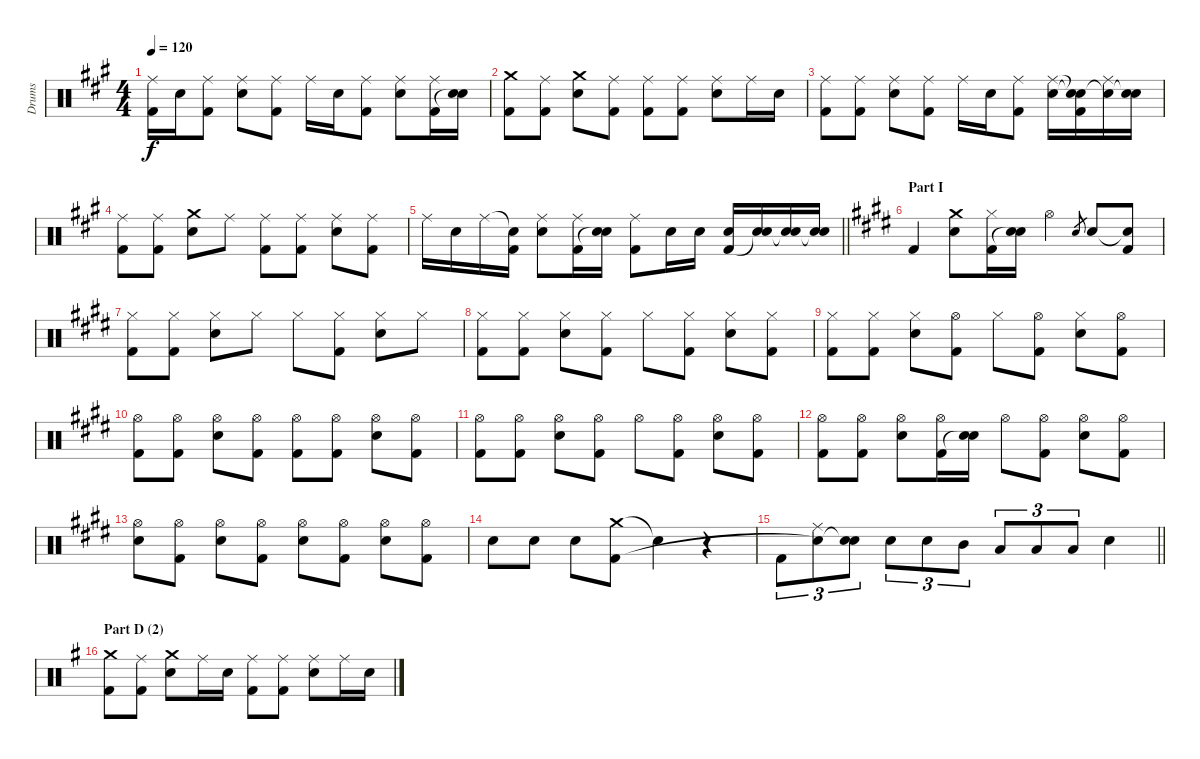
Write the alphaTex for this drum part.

\track ("Drums" "Drums") {instrument percussion}
\staff {score}
\articulation defaults
\ts (4 4)
\tempo 120
\clef neutral
\ks a
("Ride (middle)" "Kick (hit) 2").16{dy f} "Snare (hit) 2".16 ("Ride (middle)" "Kick (hit) 2").8 ("Ride (middle)" "Electric Snare (hit)").8 ("Ride (middle)" "Kick (hit) 2").8 "Ride (middle)".16 "Snare (hit) 2".16 ("Ride (middle)" "Kick (hit) 2").8 ("Ride (middle)" "Electric Snare (hit)").8 ("Ride (middle)" "Kick (hit) 2").16 ("Snare (hit) 2" "Snare (hit)"{t}).16 |
("Crash medium (hit)" "Kick (hit) 2").8 ("Ride (middle)" "Kick (hit) 2").8 ("Crash medium (hit)" "Electric Snare (hit)").8 ("Ride (middle)" "Kick (hit) 2").8 ("Ride (middle)" "Kick (hit) 2").8 ("Ride (middle)" "Kick (hit) 2").8 ("Ride (middle)" "Electric Snare (hit)").8 "Ride (middle)".16 "Snare (hit) 2".16 |
("Ride (middle)" "Kick (hit) 2").8 ("Ride (middle)" "Kick (hit) 2").8 ("Ride (middle)" "Electric Snare (hit)").8 ("Ride (middle)" "Kick (hit) 2").8 "Ride (middle)".16 "Electric Snare (hit)".16 ("Ride (middle)" "Kick (hit) 2").8 ("Ride (middle)" "Electric Snare (hit)").16 ("Snare (hit)"{t} "Snare (hit)"{t} "Kick (hit) 2").16 ("Ride (middle)" "Snare (hit)"{t}).16 ("Electric Snare (hit)" "Snare (hit)"{t}).16 |
("Ride (middle)" "Kick (hit) 2").8 ("Ride (middle)" "Kick (hit) 2").8 ("Crash medium (hit)" "Electric Snare (hit)").8 "Ride (middle)".8 ("Ride (middle)" "Kick (hit) 2").8 ("Ride (middle)" "Kick (hit) 2").8 ("Ride (middle)" "Electric Snare (hit)").8 ("Ride (middle)" "Kick (hit) 2").8 |
\barLineRight lightlight "Ride (middle)".16 "Electric Snare (hit)".16 "Ride (middle)".16
("Snare (hit)"{t} "Kick (hit) 2").16 ("Ride (middle)" "Electric Snare (hit)").8 ("Ride (middle)" "Kick (hit) 2").16 ("Electric Snare (hit)" "Snare (hit)"{t}).16 ("Ride (middle)" "Kick (hit) 2").8 "Electric Snare (hit)".16 "Electric Snare (hit)".16 ("Electric Snare (hit)" "Kick (hit) 2").16 ("Electric Snare (hit)" "Snare (hit)"{t}).16 ("Electric Snare (hit)" "Snare (hit)"{t}).16 ("Electric Snare (hit)" "Snare (hit)"{t}).16 |
\section ("" "Part I")
\ks e "Kick (hit) 2".4
("Crash medium (hit)" "Electric Snare (hit)").8 ("Hi-Hat (closed)" "Kick (hit) 2").16 ("Electric Snare (hit)" "Snare (hit)"{t}).16 "Hi-Hat (open)".4 "Electric Snare (hit)".8{gr} "Electric Snare (hit)".8 ("Snare (hit)"{t} "Kick (hit) 2").8 |
("Hi-Hat (closed)" "Kick (hit) 2").8 ("Hi-Hat (closed)" "Kick (hit) 2").8 ("Hi-Hat (closed)" "Electric Snare (hit)").8 "Hi-Hat (closed)".8 "Hi-Hat (closed)".8 ("Hi-Hat (closed)" "Kick (hit) 2").8 ("Hi-Hat (closed)" "Electric Snare (hit)").8 "Hi-Hat (closed)".8 |
("Hi-Hat (closed)" "Kick (hit) 2").8 ("Hi-Hat (closed)" "Kick (hit) 2").8 ("Hi-Hat (closed)" "Electric Snare (hit)").8 ("Hi-Hat (closed)" "Kick (hit) 2").8 "Hi-Hat (closed)".8 ("Hi-Hat (closed)" "Kick (hit) 2").8 ("Hi-Hat (closed)" "Electric Snare (hit)").8 ("Hi-Hat (closed)" "Kick (hit) 2").8 |
("Hi-Hat (closed)" "Kick (hit) 2").8 ("Hi-Hat (closed)" "Kick (hit) 2").8 ("Hi-Hat (closed)" "Electric Snare (hit)").8 ("Hi-Hat (open)" "Kick (hit) 2").8 "Hi-Hat (closed)".8 ("Hi-Hat (open)" "Kick (hit) 2").8 ("Hi-Hat (closed)" "Electric Snare (hit)").8 ("Hi-Hat (open)" "Kick (hit) 2").8 |
("Hi-Hat (open)" "Kick (hit) 2").8 ("Hi-Hat (open)" "Kick (hit) 2").8 ("Hi-Hat (open)" "Electric Snare (hit)").8 ("Hi-Hat (open)" "Kick (hit) 2").8 ("Hi-Hat (open)" "Kick (hit) 2").8 ("Hi-Hat (open)" "Kick (hit) 2").8 ("Hi-Hat (open)" "Electric Snare (hit)").8 ("Hi-Hat (open)" "Kick (hit) 2").8 |
("Hi-Hat (open)" "Kick (hit) 2").8 ("Hi-Hat (open)" "Kick (hit) 2").8 ("Hi-Hat (open)" "Electric Snare (hit)").8 ("Hi-Hat (open)" "Kick (hit) 2").8 "Hi-Hat (open)".8 ("Hi-Hat (open)" "Kick (hit) 2").8 ("Hi-Hat (open)" "Electric Snare (hit)").8 ("Hi-Hat (open)" "Kick (hit) 2").8 |
("Hi-Hat (open)" "Kick (hit) 2").8 ("Hi-Hat (open)" "Kick (hit) 2").8 ("Hi-Hat (open)" "Electric Snare (hit)").8 ("Hi-Hat (open)" "Kick (hit) 2").16 ("Electric Snare (hit)" "Snare (hit)"{t}).16 "Hi-Hat (open)".8 ("Hi-Hat (open)" "Kick (hit) 2").8 ("Hi-Hat (open)" "Electric Snare (hit)").8 ("Hi-Hat (open)" "Kick (hit) 2").8 |
("Hi-Hat (open)" "Electric Snare (hit)").8 ("Hi-Hat (open)" "Kick (hit) 2").8 ("Hi-Hat (open)" "Electric Snare (hit)").8 ("Hi-Hat (open)" "Kick (hit) 2").8 ("Hi-Hat (open)" "Electric Snare (hit)").8 ("Hi-Hat (open)" "Kick (hit) 2").8 ("Hi-Hat (open)" "Electric Snare (hit)").8 ("Hi-Hat (open)" "Kick (hit) 2").8 |
"Electric Snare (hit)".8 "Electric Snare (hit)".8 "Electric Snare (hit)".8 ("Crash medium (hit)" "Kick (hit) 2").8 "Snare (hit)"{t}.4 r.4 |
\barLineRight lightlight "Kick (hit) 2".8{tu (3 2)}
("Ride (middle)" "Snare (hit)"{t}).8{tu (3 2)} ("Electric Snare (hit)" "Snare (hit)"{t}).8{tu (3 2)} "Electric Snare (hit)".8{tu (3 2)} "Electric Snare (hit)".8{tu (3 2)} "Mid Tom (hit)".8{tu (3 2)} "Low Floor Tom (hit)".8{tu (3 2)} "Low Tom (hit)".8{tu (3 2)} "Low Floor Tom (hit)".8{tu (3 2)} "Electric Snare (hit)".4 |
\section ("" "Part D (2)")
\ks g
("Crash medium (hit)" "Kick (hit) 2").8 ("Ride (middle)" "Kick (hit) 2").8 ("Crash medium (hit)" "Electric Snare (hit)").8 "Ride (middle)".16 "Electric Snare (hit)".16 ("Ride (middle)" "Kick (hit) 2").8 ("Ride (middle)" "Kick (hit) 2").8 ("Ride (middle)" "Electric Snare (hit)").8 "Ride (middle)".16 "Electric Snare (hit)".16
